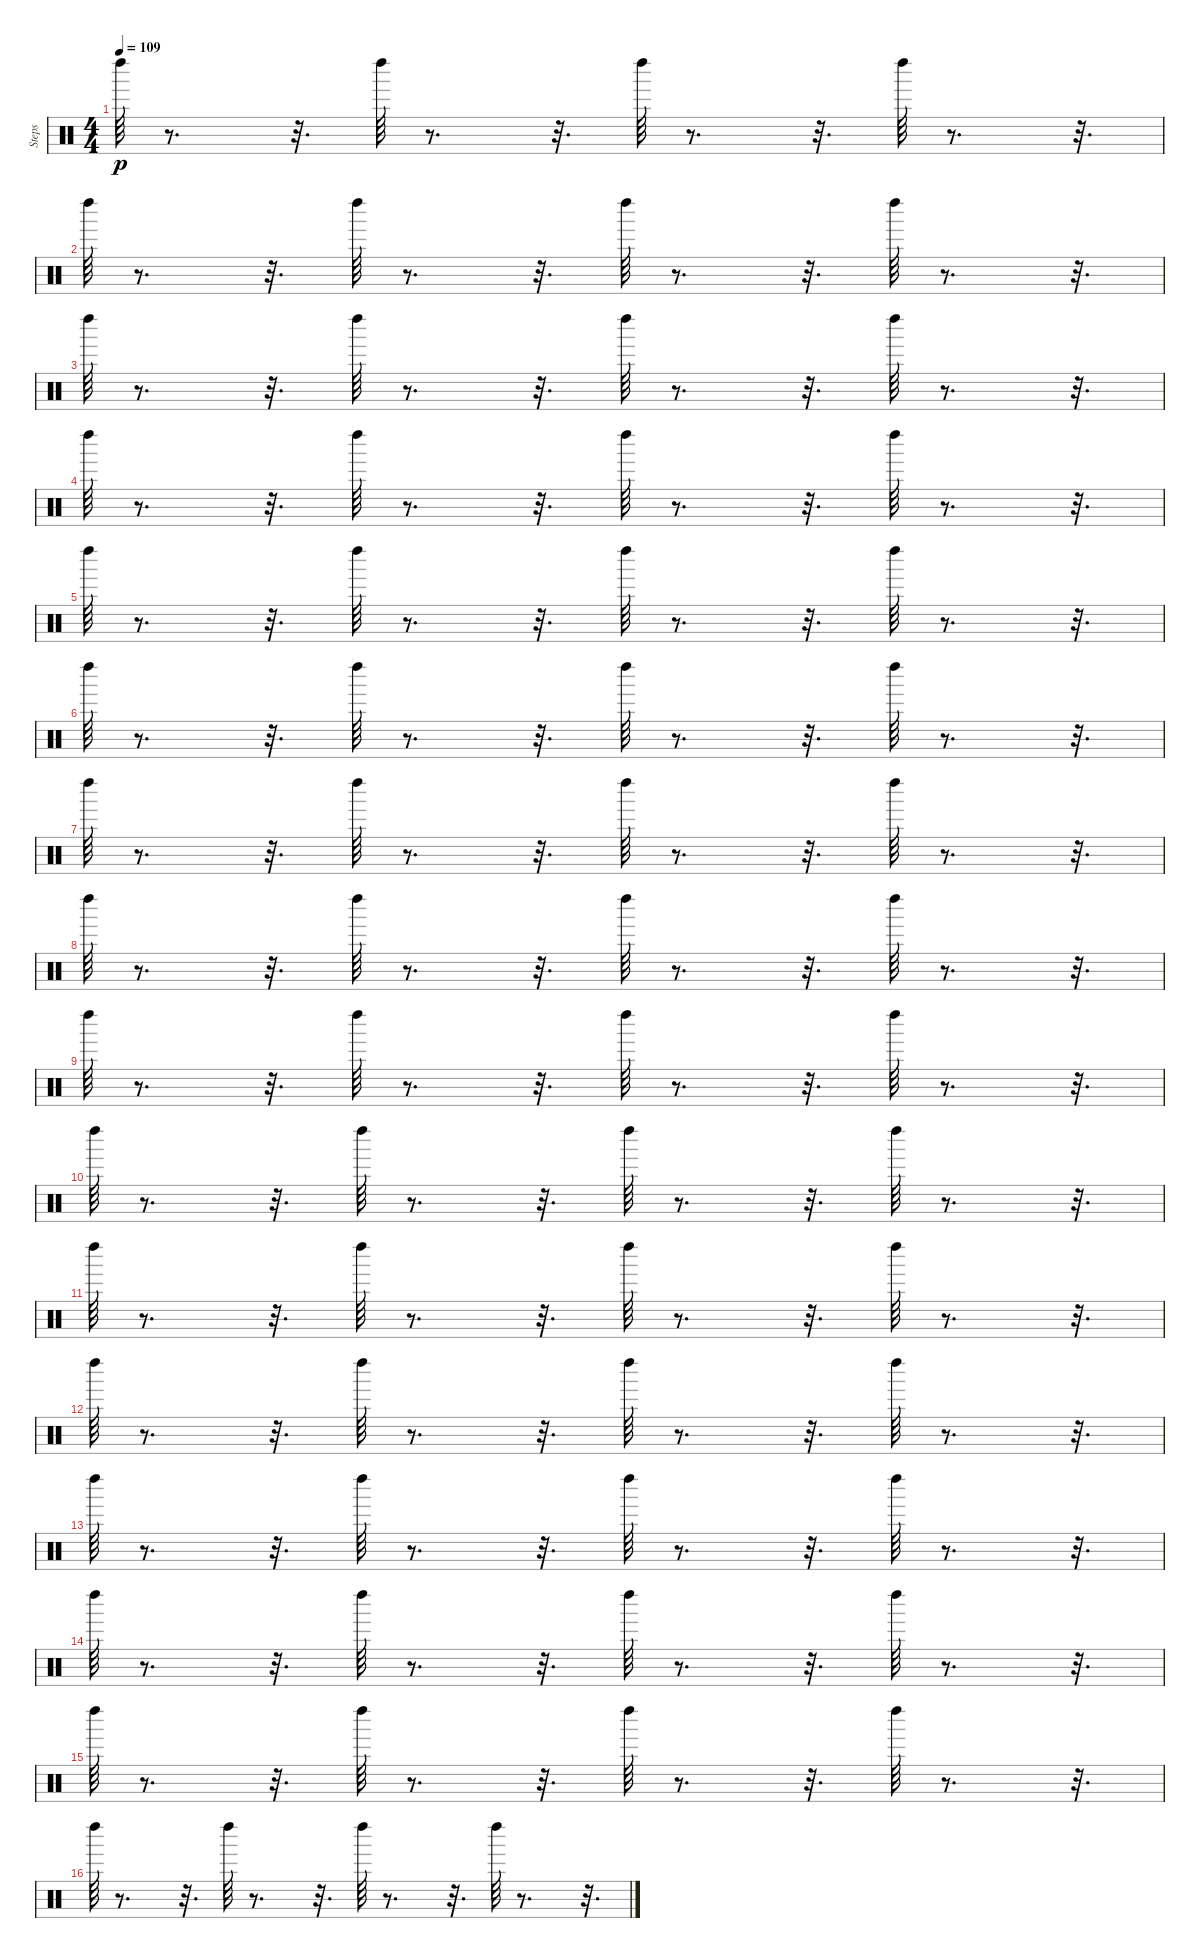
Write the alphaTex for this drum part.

\track ("Steps" "Steps") {instrument percussion}
\staff {score}
\articulation defaults
\ts (4 4)
\tempo 109
\clef neutral
\ks c "Left Maraca (hit)".64{dy p}
r.8{d} r.32{d} "Left Maraca (hit)".64 r.8{d} r.32{d} "Left Maraca (hit)".64 r.8{d} r.32{d} "Left Maraca (hit)".64 r.8{d} r.32{d} |
"Left Maraca (hit)".64 r.8{d} r.32{d} "Left Maraca (hit)".64 r.8{d} r.32{d} "Left Maraca (hit)".64 r.8{d} r.32{d} "Left Maraca (hit)".64 r.8{d} r.32{d} |
"Left Maraca (hit)".64 r.8{d} r.32{d} "Left Maraca (hit)".64 r.8{d} r.32{d} "Left Maraca (hit)".64 r.8{d} r.32{d} "Left Maraca (hit)".64 r.8{d} r.32{d} |
"Left Maraca (hit)".64 r.8{d} r.32{d} "Left Maraca (hit)".64 r.8{d} r.32{d} "Left Maraca (hit)".64 r.8{d} r.32{d} "Left Maraca (hit)".64 r.8{d} r.32{d} |
"Left Maraca (hit)".64 r.8{d} r.32{d} "Left Maraca (hit)".64 r.8{d} r.32{d} "Left Maraca (hit)".64 r.8{d} r.32{d} "Left Maraca (hit)".64 r.8{d} r.32{d} |
"Left Maraca (hit)".64 r.8{d} r.32{d} "Left Maraca (hit)".64 r.8{d} r.32{d} "Left Maraca (hit)".64 r.8{d} r.32{d} "Left Maraca (hit)".64 r.8{d} r.32{d} |
"Left Maraca (hit)".64 r.8{d} r.32{d} "Left Maraca (hit)".64 r.8{d} r.32{d} "Left Maraca (hit)".64 r.8{d} r.32{d} "Left Maraca (hit)".64 r.8{d} r.32{d} |
"Left Maraca (hit)".64 r.8{d} r.32{d} "Left Maraca (hit)".64 r.8{d} r.32{d} "Left Maraca (hit)".64 r.8{d} r.32{d} "Left Maraca (hit)".64 r.8{d} r.32{d} |
"Left Maraca (hit)".64 r.8{d} r.32{d} "Left Maraca (hit)".64 r.8{d} r.32{d} "Left Maraca (hit)".64 r.8{d} r.32{d} "Left Maraca (hit)".64 r.8{d} r.32{d} |
"Left Maraca (hit)".64 r.8{d} r.32{d} "Left Maraca (hit)".64 r.8{d} r.32{d} "Left Maraca (hit)".64 r.8{d} r.32{d} "Left Maraca (hit)".64 r.8{d} r.32{d} |
"Left Maraca (hit)".64 r.8{d} r.32{d} "Left Maraca (hit)".64 r.8{d} r.32{d} "Left Maraca (hit)".64 r.8{d} r.32{d} "Left Maraca (hit)".64 r.8{d} r.32{d} |
"Left Maraca (hit)".64 r.8{d} r.32{d} "Left Maraca (hit)".64 r.8{d} r.32{d} "Left Maraca (hit)".64 r.8{d} r.32{d} "Left Maraca (hit)".64 r.8{d} r.32{d} |
"Left Maraca (hit)".64 r.8{d} r.32{d} "Left Maraca (hit)".64 r.8{d} r.32{d} "Left Maraca (hit)".64 r.8{d} r.32{d} "Left Maraca (hit)".64 r.8{d} r.32{d} |
"Left Maraca (hit)".64 r.8{d} r.32{d} "Left Maraca (hit)".64 r.8{d} r.32{d} "Left Maraca (hit)".64 r.8{d} r.32{d} "Left Maraca (hit)".64 r.8{d} r.32{d} |
"Left Maraca (hit)".64 r.8{d} r.32{d} "Left Maraca (hit)".64 r.8{d} r.32{d} "Left Maraca (hit)".64 r.8{d} r.32{d} "Left Maraca (hit)".64 r.8{d} r.32{d} |
"Left Maraca (hit)".64 r.8{d} r.32{d} "Left Maraca (hit)".64 r.8{d} r.32{d} "Left Maraca (hit)".64 r.8{d} r.32{d} "Left Maraca (hit)".64 r.8{d} r.32{d}
